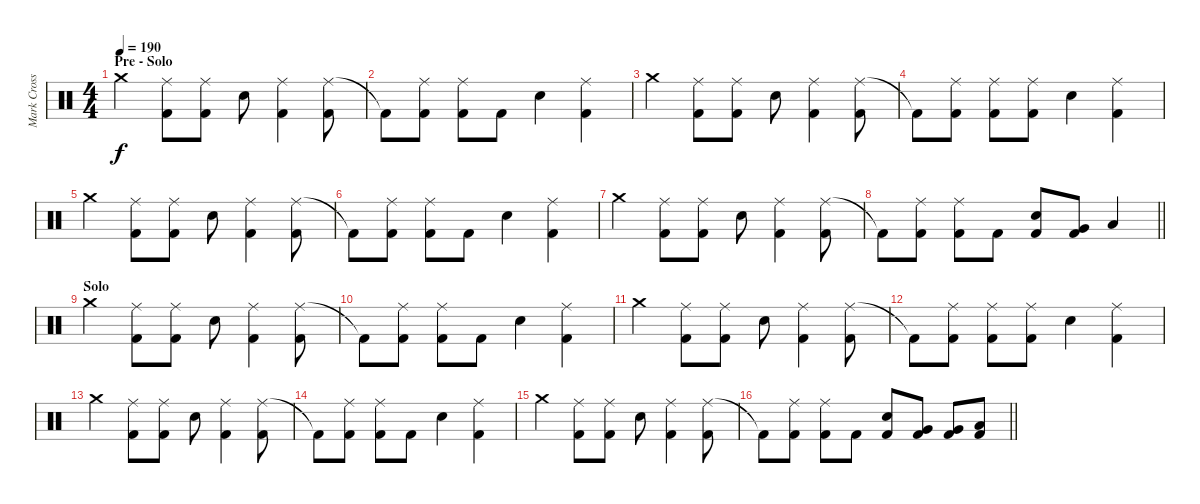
\track ("Mark Cross" "Mark Cross") {instrument percussion}
\staff {score}
\articulation defaults
\ts (4 4)
\section ("" "Pre - Solo")
\tempo 190
\clef neutral
\ks c "Crash medium (hit)".4{dy f}
("Ride (middle)" "Kick (hit) 2").8 ("Ride (middle)" "Kick (hit) 2").8 "Electric Snare (hit)".8 ("Ride (middle)" "Kick (hit) 2").4 ("Ride (middle)" "Kick (hit) 2").8 |
"Kick (hit) 2"{t}.8 ("Ride (middle)" "Kick (hit) 2").8 ("Ride (middle)" "Kick (hit) 2").8 "Kick (hit) 2".8 "Electric Snare (hit)".4 ("Ride (middle)" "Kick (hit) 2").4 |
"Crash medium (hit)".4 ("Ride (middle)" "Kick (hit) 2").8 ("Ride (middle)" "Kick (hit) 2").8 "Electric Snare (hit)".8 ("Ride (middle)" "Kick (hit) 2").4 ("Ride (middle)" "Kick (hit) 2").8 |
"Kick (hit) 2"{t}.8 ("Ride (middle)" "Kick (hit) 2").8 ("Ride (middle)" "Kick (hit) 2").8 ("Ride (middle)" "Kick (hit) 2").8 "Electric Snare (hit)".4 ("Ride (middle)" "Kick (hit) 2").4 |
"Crash medium (hit)".4 ("Ride (middle)" "Kick (hit) 2").8 ("Ride (middle)" "Kick (hit) 2").8 "Electric Snare (hit)".8 ("Ride (middle)" "Kick (hit) 2").4 ("Ride (middle)" "Kick (hit) 2").8 |
"Kick (hit) 2"{t}.8 ("Ride (middle)" "Kick (hit) 2").8 ("Ride (middle)" "Kick (hit) 2").8 "Kick (hit) 2".8 "Electric Snare (hit)".4 ("Ride (middle)" "Kick (hit) 2").4 |
"Crash medium (hit)".4 ("Ride (middle)" "Kick (hit) 2").8 ("Ride (middle)" "Kick (hit) 2").8 "Electric Snare (hit)".8 ("Ride (middle)" "Kick (hit) 2").4 ("Ride (middle)" "Kick (hit) 2").8 |
\barLineRight lightlight "Kick (hit) 2"{t}.8
("Ride (middle)" "Kick (hit) 2").8 ("Ride (middle)" "Kick (hit) 2").8 "Kick (hit) 2".8 ("Electric Snare (hit)" "Kick (hit) 2").8 ("Very Low Tom (hit)" "Kick (hit) 2").8 "Low Floor Tom (hit)".4 |
\section ("" "Solo")
"Crash medium (hit)".4 ("Ride (middle)" "Kick (hit) 2").8 ("Ride (middle)" "Kick (hit) 2").8 "Electric Snare (hit)".8 ("Ride (middle)" "Kick (hit) 2").4 ("Ride (middle)" "Kick (hit) 2").8 |
"Kick (hit) 2"{t}.8 ("Ride (middle)" "Kick (hit) 2").8 ("Ride (middle)" "Kick (hit) 2").8 "Kick (hit) 2".8 "Electric Snare (hit)".4 ("Ride (middle)" "Kick (hit) 2").4 |
"Crash medium (hit)".4 ("Ride (middle)" "Kick (hit) 2").8 ("Ride (middle)" "Kick (hit) 2").8 "Electric Snare (hit)".8 ("Ride (middle)" "Kick (hit) 2").4 ("Ride (middle)" "Kick (hit) 2").8 |
"Kick (hit) 2"{t}.8 ("Ride (middle)" "Kick (hit) 2").8 ("Ride (middle)" "Kick (hit) 2").8 ("Ride (middle)" "Kick (hit) 2").8 "Electric Snare (hit)".4 ("Ride (middle)" "Kick (hit) 2").4 |
"Crash medium (hit)".4 ("Ride (middle)" "Kick (hit) 2").8 ("Ride (middle)" "Kick (hit) 2").8 "Electric Snare (hit)".8 ("Ride (middle)" "Kick (hit) 2").4 ("Ride (middle)" "Kick (hit) 2").8 |
"Kick (hit) 2"{t}.8 ("Ride (middle)" "Kick (hit) 2").8 ("Ride (middle)" "Kick (hit) 2").8 "Kick (hit) 2".8 "Electric Snare (hit)".4 ("Ride (middle)" "Kick (hit) 2").4 |
"Crash medium (hit)".4 ("Ride (middle)" "Kick (hit) 2").8 ("Ride (middle)" "Kick (hit) 2").8 "Electric Snare (hit)".8 ("Ride (middle)" "Kick (hit) 2").4 ("Ride (middle)" "Kick (hit) 2").8 |
\barLineRight lightlight "Kick (hit) 2"{t}.8
("Ride (middle)" "Kick (hit) 2").8 ("Ride (middle)" "Kick (hit) 2").8 "Kick (hit) 2".8 ("Electric Snare (hit)" "Kick (hit) 2").8 ("Very Low Tom (hit)" "Kick (hit) 2").8 ("Very Low Tom (hit)" "Kick (hit) 2").8 ("Low Floor Tom (hit)" "Kick (hit) 2").8
